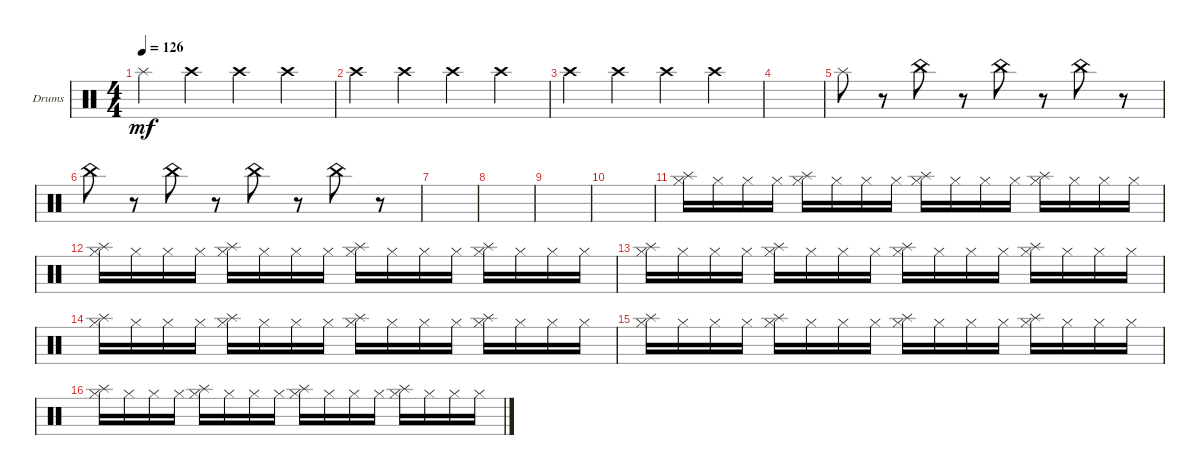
\defaultSystemsLayout 4
\bracketExtendMode groupsimilarinstruments
\firstSystemTrackNameOrientation horizontal
\otherSystemsTrackNameOrientation horizontal
\track ("Drumkit" "Drums") {instrument percussion}
\staff {score}
\articulation defaults
\ts (4 4)
\tempo 126
\clef neutral
\ks c "Splash (hit)".4{dy mf} "Crash high (hit)".4 "Crash high (hit)".4 "Crash high (hit)".4
|
"Crash high (hit)".4 "Crash high (hit)".4 "Crash high (hit)".4 "Crash high (hit)".4 |
"Crash high (hit)".4 "Crash high (hit)".4 "Crash high (hit)".4 "Crash high (hit)".4 |
|
"Splash (hit)".8 r.8 "China (hit)".8 r.8 "China (hit)".8 r.8 "China (hit)".8 r.8 |
"China (hit)".8 r.8 "China (hit)".8 r.8 "China (hit)".8 r.8 "China (hit)".8 r.8 |
|
|
|
|
("Hi-Hat (closed)" "Splash (hit)").16 "Hi-Hat (closed)".16 "Hi-Hat (closed)".16 "Hi-Hat (closed)".16 ("Hi-Hat (closed)" "Splash (hit)").16 "Hi-Hat (closed)".16 "Hi-Hat (closed)".16 "Hi-Hat (closed)".16 ("Hi-Hat (closed)" "Splash (hit)").16 "Hi-Hat (closed)".16 "Hi-Hat (closed)".16 "Hi-Hat (closed)".16 ("Hi-Hat (closed)" "Splash (hit)").16 "Hi-Hat (closed)".16 "Hi-Hat (closed)".16 "Hi-Hat (closed)".16 |
("Hi-Hat (closed)" "Splash (hit)").16 "Hi-Hat (closed)".16 "Hi-Hat (closed)".16 "Hi-Hat (closed)".16 ("Hi-Hat (closed)" "Splash (hit)").16 "Hi-Hat (closed)".16 "Hi-Hat (closed)".16 "Hi-Hat (closed)".16 ("Hi-Hat (closed)" "Splash (hit)").16 "Hi-Hat (closed)".16 "Hi-Hat (closed)".16 "Hi-Hat (closed)".16 ("Hi-Hat (closed)" "Splash (hit)").16 "Hi-Hat (closed)".16 "Hi-Hat (closed)".16 "Hi-Hat (closed)".16 |
("Hi-Hat (closed)" "Splash (hit)").16 "Hi-Hat (closed)".16 "Hi-Hat (closed)".16 "Hi-Hat (closed)".16 ("Hi-Hat (closed)" "Splash (hit)").16 "Hi-Hat (closed)".16 "Hi-Hat (closed)".16 "Hi-Hat (closed)".16 ("Hi-Hat (closed)" "Splash (hit)").16 "Hi-Hat (closed)".16 "Hi-Hat (closed)".16 "Hi-Hat (closed)".16 ("Hi-Hat (closed)" "Splash (hit)").16 "Hi-Hat (closed)".16 "Hi-Hat (closed)".16 "Hi-Hat (closed)".16 |
("Hi-Hat (closed)" "Splash (hit)").16 "Hi-Hat (closed)".16 "Hi-Hat (closed)".16 "Hi-Hat (closed)".16 ("Hi-Hat (closed)" "Splash (hit)").16 "Hi-Hat (closed)".16 "Hi-Hat (closed)".16 "Hi-Hat (closed)".16 ("Hi-Hat (closed)" "Splash (hit)").16 "Hi-Hat (closed)".16 "Hi-Hat (closed)".16 "Hi-Hat (closed)".16 ("Hi-Hat (closed)" "Splash (hit)").16 "Hi-Hat (closed)".16 "Hi-Hat (closed)".16 "Hi-Hat (closed)".16 |
("Hi-Hat (closed)" "Splash (hit)").16 "Hi-Hat (closed)".16 "Hi-Hat (closed)".16 "Hi-Hat (closed)".16 ("Hi-Hat (closed)" "Splash (hit)").16 "Hi-Hat (closed)".16 "Hi-Hat (closed)".16 "Hi-Hat (closed)".16 ("Hi-Hat (closed)" "Splash (hit)").16 "Hi-Hat (closed)".16 "Hi-Hat (closed)".16 "Hi-Hat (closed)".16 ("Hi-Hat (closed)" "Splash (hit)").16 "Hi-Hat (closed)".16 "Hi-Hat (closed)".16 "Hi-Hat (closed)".16 |
("Hi-Hat (closed)" "Splash (hit)").16 "Hi-Hat (closed)".16 "Hi-Hat (closed)".16 "Hi-Hat (closed)".16 ("Hi-Hat (closed)" "Splash (hit)").16 "Hi-Hat (closed)".16 "Hi-Hat (closed)".16 "Hi-Hat (closed)".16 ("Hi-Hat (closed)" "Splash (hit)").16 "Hi-Hat (closed)".16 "Hi-Hat (closed)".16 "Hi-Hat (closed)".16 ("Hi-Hat (closed)" "Splash (hit)").16 "Hi-Hat (closed)".16 "Hi-Hat (closed)".16 "Hi-Hat (closed)".16
